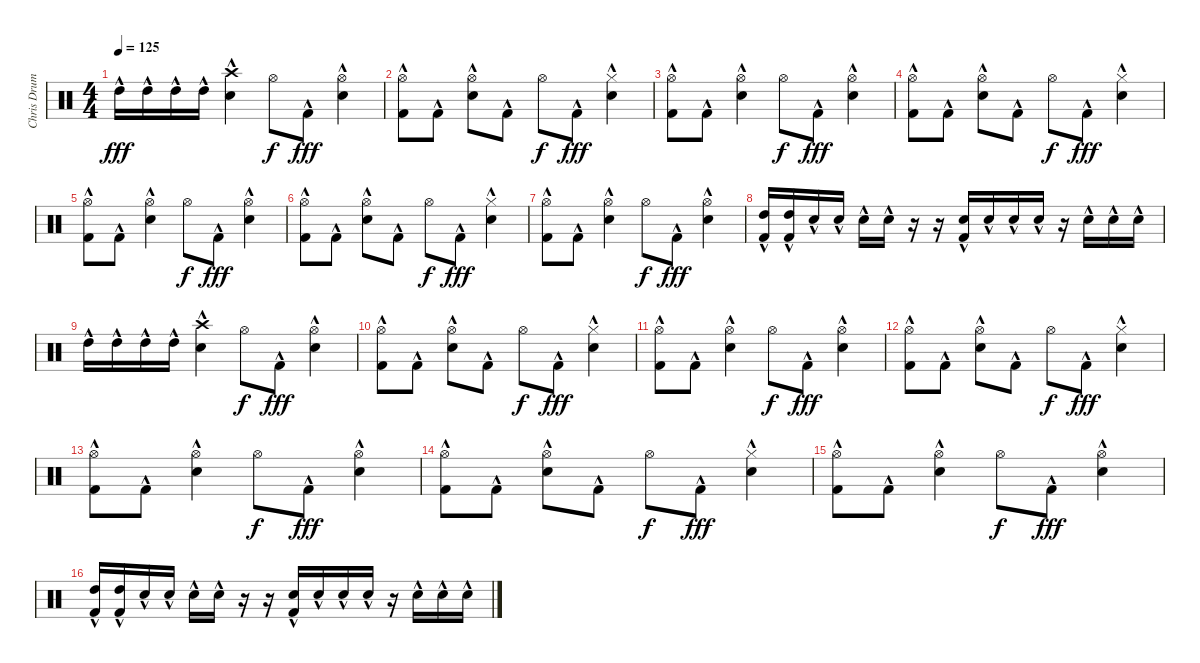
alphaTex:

\track ("Chris Drums" "Chris Drum") {instrument percussion}
\staff {score}
\articulation defaults
\ts (4 4)
\tempo 125
\clef neutral
\ks c "High Tom (hit)"{hac}.16{dy fff} "High Tom (hit)"{hac}.16 "High Tom (hit)"{hac}.16 "High Tom (hit)"{hac}.16
("Crash high (hit)"{hac} "Snare (hit) 2"{hac}).4 "Hi-Hat (open)".8{dy f} "Kick (hit) 2"{hac}.8{dy fff} ("Hi-Hat (open)" "Snare (hit) 2"{hac}).4 |
("Hi-Hat (open)" "Kick (hit) 2"{hac}).8 "Kick (hit) 2"{hac}.8 ("Hi-Hat (open)" "Snare (hit) 2"{hac}).8 "Kick (hit) 2"{hac}.8 "Hi-Hat (open)".8{dy f} "Kick (hit) 2"{hac}.8{dy fff} ("Hi-Hat (closed)" "Snare (hit) 2"{hac}).4 |
("Hi-Hat (open)" "Kick (hit) 2"{hac}).8 "Kick (hit) 2"{hac}.8 ("Hi-Hat (open)" "Snare (hit) 2"{hac}).4 "Hi-Hat (open)".8{dy f} "Kick (hit) 2"{hac}.8{dy fff} ("Hi-Hat (open)" "Snare (hit) 2"{hac}).4 |
("Hi-Hat (open)" "Kick (hit) 2"{hac}).8 "Kick (hit) 2"{hac}.8 ("Hi-Hat (open)" "Snare (hit) 2"{hac}).8 "Kick (hit) 2"{hac}.8 "Hi-Hat (open)".8{dy f} "Kick (hit) 2"{hac}.8{dy fff} ("Hi-Hat (closed)" "Snare (hit) 2"{hac}).4 |
("Hi-Hat (open)" "Kick (hit) 2"{hac}).8 "Kick (hit) 2"{hac}.8 ("Hi-Hat (open)" "Snare (hit) 2"{hac}).4 "Hi-Hat (open)".8{dy f} "Kick (hit) 2"{hac}.8{dy fff} ("Hi-Hat (open)" "Snare (hit) 2"{hac}).4 |
("Hi-Hat (open)" "Kick (hit) 2"{hac}).8 "Kick (hit) 2"{hac}.8 ("Hi-Hat (open)" "Snare (hit) 2"{hac}).8 "Kick (hit) 2"{hac}.8 "Hi-Hat (open)".8{dy f} "Kick (hit) 2"{hac}.8{dy fff} ("Hi-Hat (closed)" "Snare (hit) 2"{hac}).4 |
("Hi-Hat (open)" "Kick (hit) 2"{hac}).8 "Kick (hit) 2"{hac}.8 ("Hi-Hat (open)" "Snare (hit) 2"{hac}).4 "Hi-Hat (open)".8{dy f} "Kick (hit) 2"{hac}.8{dy fff} ("Hi-Hat (open)" "Snare (hit) 2"{hac}).4 |
("High Tom (hit)"{hac} "Kick (hit) 2"{hac}).16 ("High Tom (hit)"{hac} "Kick (hit) 2"{hac}).16 "Snare (hit) 2"{hac}.16 "Snare (hit) 2"{hac}.16 "Snare (hit) 2"{hac}.16 "Snare (hit) 2"{hac}.16 r.16 r.16 ("Snare (hit) 2"{hac} "Kick (hit) 2"{hac}).16 "Snare (hit) 2"{hac}.16 "Snare (hit) 2"{hac}.16 "Snare (hit) 2"{hac}.16 r.16 "Snare (hit) 2"{hac}.16 "Snare (hit) 2"{hac}.16 "Snare (hit) 2"{hac}.16 |
"High Tom (hit)"{hac}.16 "High Tom (hit)"{hac}.16 "High Tom (hit)"{hac}.16 "High Tom (hit)"{hac}.16 ("Crash high (hit)"{hac} "Snare (hit) 2"{hac}).4 "Hi-Hat (open)".8{dy f} "Kick (hit) 2"{hac}.8{dy fff} ("Hi-Hat (open)" "Snare (hit) 2"{hac}).4 |
("Hi-Hat (open)" "Kick (hit) 2"{hac}).8 "Kick (hit) 2"{hac}.8 ("Hi-Hat (open)" "Snare (hit) 2"{hac}).8 "Kick (hit) 2"{hac}.8 "Hi-Hat (open)".8{dy f} "Kick (hit) 2"{hac}.8{dy fff} ("Hi-Hat (closed)" "Snare (hit) 2"{hac}).4 |
("Hi-Hat (open)" "Kick (hit) 2"{hac}).8 "Kick (hit) 2"{hac}.8 ("Hi-Hat (open)" "Snare (hit) 2"{hac}).4 "Hi-Hat (open)".8{dy f} "Kick (hit) 2"{hac}.8{dy fff} ("Hi-Hat (open)" "Snare (hit) 2"{hac}).4 |
("Hi-Hat (open)" "Kick (hit) 2"{hac}).8 "Kick (hit) 2"{hac}.8 ("Hi-Hat (open)" "Snare (hit) 2"{hac}).8 "Kick (hit) 2"{hac}.8 "Hi-Hat (open)".8{dy f} "Kick (hit) 2"{hac}.8{dy fff} ("Hi-Hat (closed)" "Snare (hit) 2"{hac}).4 |
("Hi-Hat (open)" "Kick (hit) 2"{hac}).8 "Kick (hit) 2"{hac}.8 ("Hi-Hat (open)" "Snare (hit) 2"{hac}).4 "Hi-Hat (open)".8{dy f} "Kick (hit) 2"{hac}.8{dy fff} ("Hi-Hat (open)" "Snare (hit) 2"{hac}).4 |
("Hi-Hat (open)" "Kick (hit) 2"{hac}).8 "Kick (hit) 2"{hac}.8 ("Hi-Hat (open)" "Snare (hit) 2"{hac}).8 "Kick (hit) 2"{hac}.8 "Hi-Hat (open)".8{dy f} "Kick (hit) 2"{hac}.8{dy fff} ("Hi-Hat (closed)" "Snare (hit) 2"{hac}).4 |
("Hi-Hat (open)" "Kick (hit) 2"{hac}).8 "Kick (hit) 2"{hac}.8 ("Hi-Hat (open)" "Snare (hit) 2"{hac}).4 "Hi-Hat (open)".8{dy f} "Kick (hit) 2"{hac}.8{dy fff} ("Hi-Hat (open)" "Snare (hit) 2"{hac}).4 |
("High Tom (hit)"{hac} "Kick (hit) 2"{hac}).16 ("High Tom (hit)"{hac} "Kick (hit) 2"{hac}).16 "Snare (hit) 2"{hac}.16 "Snare (hit) 2"{hac}.16 "Snare (hit) 2"{hac}.16 "Snare (hit) 2"{hac}.16 r.16 r.16 ("Snare (hit) 2"{hac} "Kick (hit) 2"{hac}).16 "Snare (hit) 2"{hac}.16 "Snare (hit) 2"{hac}.16 "Snare (hit) 2"{hac}.16 r.16 "Snare (hit) 2"{hac}.16 "Snare (hit) 2"{hac}.16 "Snare (hit) 2"{hac}.16
